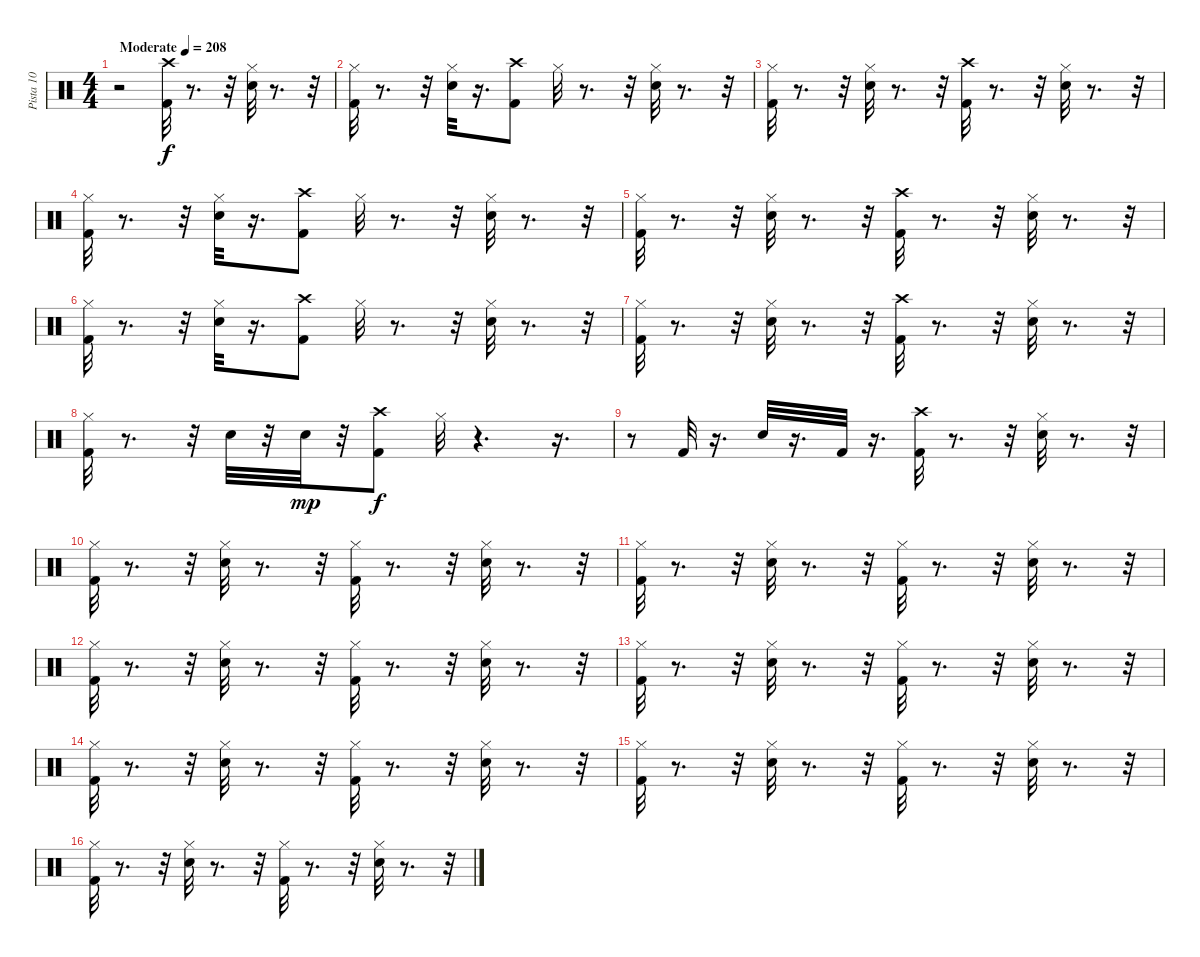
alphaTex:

\track ("Pista 10" "Pista 10") {instrument percussion}
\staff {score}
\articulation defaults
\ts (4 4)
\tempo (208 "Moderate")
\clef neutral
\ks c
r.2{dy f} ("Kick (hit) 2" "Crash high (hit)").32 r.8{d} r.32 ("Snare (hit) 2" "Hi-Hat (closed)").32 r.8{d} r.32 |
("Kick (hit) 2" "Hi-Hat (closed)").32 r.8{d} r.32 ("Snare (hit) 2" "Hi-Hat (closed)").32 r.16{d} ("Crash high (hit)" "Kick (hit) 2").8 "Hi-Hat (closed)".32 r.8{d} r.32 ("Snare (hit) 2" "Hi-Hat (closed)").32 r.8{d} r.32 |
("Hi-Hat (closed)" "Kick (hit) 2").32 r.8{d} r.32 ("Snare (hit) 2" "Hi-Hat (closed)").32 r.8{d} r.32 ("Kick (hit) 2" "Crash high (hit)").32 r.8{d} r.32 ("Snare (hit) 2" "Hi-Hat (closed)").32 r.8{d} r.32 |
("Kick (hit) 2" "Hi-Hat (closed)").32 r.8{d} r.32 ("Snare (hit) 2" "Hi-Hat (closed)").32 r.16{d} ("Crash high (hit)" "Kick (hit) 2").8 "Hi-Hat (closed)".32 r.8{d} r.32 ("Snare (hit) 2" "Hi-Hat (closed)").32 r.8{d} r.32 |
("Hi-Hat (closed)" "Kick (hit) 2").32 r.8{d} r.32 ("Snare (hit) 2" "Hi-Hat (closed)").32 r.8{d} r.32 ("Kick (hit) 2" "Crash high (hit)").32 r.8{d} r.32 ("Snare (hit) 2" "Hi-Hat (closed)").32 r.8{d} r.32 |
("Kick (hit) 2" "Hi-Hat (closed)").32 r.8{d} r.32 ("Snare (hit) 2" "Hi-Hat (closed)").32 r.16{d} ("Crash high (hit)" "Kick (hit) 2").8 "Hi-Hat (closed)".32 r.8{d} r.32 ("Snare (hit) 2" "Hi-Hat (closed)").32 r.8{d} r.32 |
("Hi-Hat (closed)" "Kick (hit) 2").32 r.8{d} r.32 ("Snare (hit) 2" "Hi-Hat (closed)").32 r.8{d} r.32 ("Kick (hit) 2" "Crash high (hit)").32 r.8{d} r.32 ("Snare (hit) 2" "Hi-Hat (closed)").32 r.8{d} r.32 |
("Kick (hit) 2" "Hi-Hat (closed)").32 r.8{d} r.32 "Snare (hit) 2".32 r.32 "Snare (hit) 2".32{dy mp} r.32 ("Crash high (hit)" "Kick (hit) 2").8{dy f} "Hi-Hat (closed)".32 r.4{d} r.16{d} |
r.8 "Kick (hit) 2".32 r.16{d} "Snare (hit) 2".32 r.16{d} "Kick (hit) 2".32 r.16{d} ("Kick (hit) 2" "Crash high (hit)").32 r.8{d} r.32 ("Snare (hit) 2" "Hi-Hat (closed)").32 r.8{d} r.32 |
("Kick (hit) 2" "Hi-Hat (closed)").32 r.8{d} r.32 ("Snare (hit) 2" "Hi-Hat (closed)").32 r.8{d} r.32 ("Hi-Hat (closed)" "Kick (hit) 2").32 r.8{d} r.32 ("Snare (hit) 2" "Hi-Hat (closed)").32 r.8{d} r.32 |
("Kick (hit) 2" "Hi-Hat (closed)").32 r.8{d} r.32 ("Snare (hit) 2" "Hi-Hat (closed)").32 r.8{d} r.32 ("Hi-Hat (closed)" "Kick (hit) 2").32 r.8{d} r.32 ("Snare (hit) 2" "Hi-Hat (closed)").32 r.8{d} r.32 |
("Kick (hit) 2" "Hi-Hat (closed)").32 r.8{d} r.32 ("Snare (hit) 2" "Hi-Hat (closed)").32 r.8{d} r.32 ("Hi-Hat (closed)" "Kick (hit) 2").32 r.8{d} r.32 ("Snare (hit) 2" "Hi-Hat (closed)").32 r.8{d} r.32 |
("Kick (hit) 2" "Hi-Hat (closed)").32 r.8{d} r.32 ("Snare (hit) 2" "Hi-Hat (closed)").32 r.8{d} r.32 ("Hi-Hat (closed)" "Kick (hit) 2").32 r.8{d} r.32 ("Snare (hit) 2" "Hi-Hat (closed)").32 r.8{d} r.32 |
("Kick (hit) 2" "Hi-Hat (closed)").32 r.8{d} r.32 ("Snare (hit) 2" "Hi-Hat (closed)").32 r.8{d} r.32 ("Hi-Hat (closed)" "Kick (hit) 2").32 r.8{d} r.32 ("Snare (hit) 2" "Hi-Hat (closed)").32 r.8{d} r.32 |
("Kick (hit) 2" "Hi-Hat (closed)").32 r.8{d} r.32 ("Snare (hit) 2" "Hi-Hat (closed)").32 r.8{d} r.32 ("Hi-Hat (closed)" "Kick (hit) 2").32 r.8{d} r.32 ("Snare (hit) 2" "Hi-Hat (closed)").32 r.8{d} r.32 |
("Kick (hit) 2" "Hi-Hat (closed)").32 r.8{d} r.32 ("Snare (hit) 2" "Hi-Hat (closed)").32 r.8{d} r.32 ("Hi-Hat (closed)" "Kick (hit) 2").32 r.8{d} r.32 ("Snare (hit) 2" "Hi-Hat (closed)").32 r.8{d} r.32
